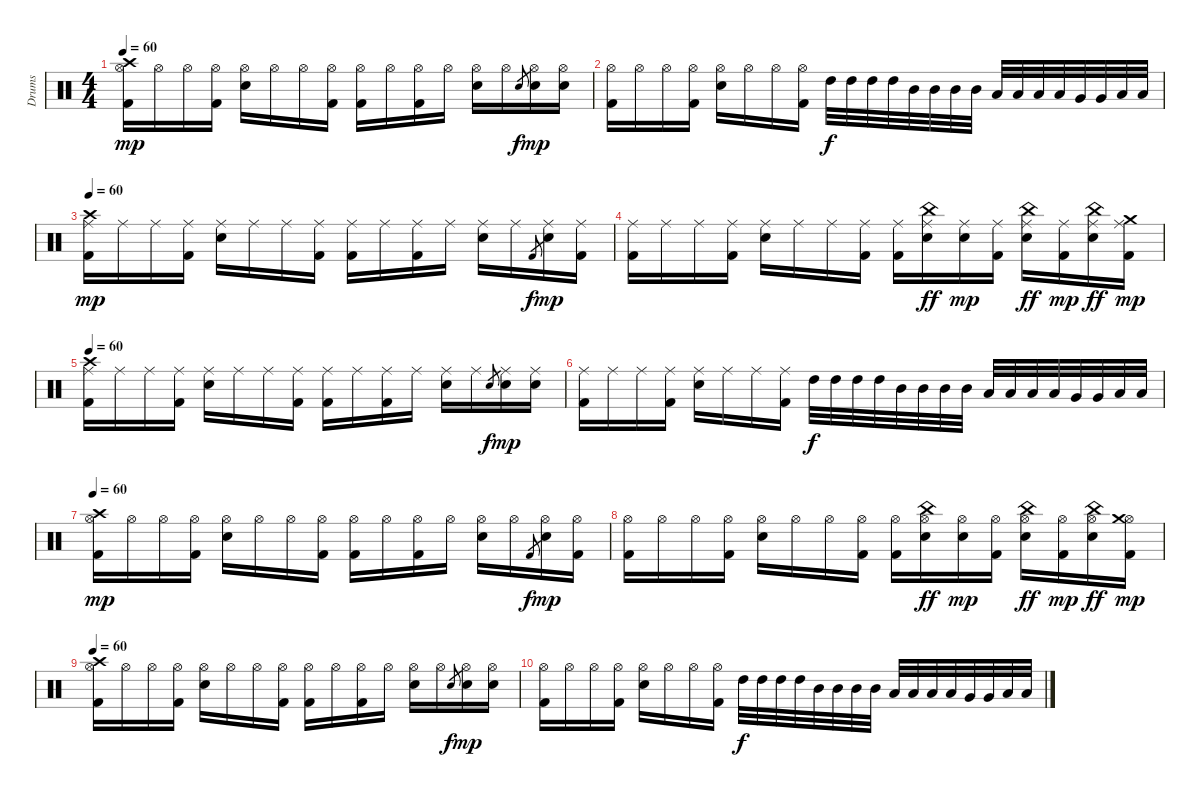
\track ("Drums" "Drums") {instrument percussion}
\staff {score}
\articulation defaults
\ts (4 4)
\tempo 60
\clef neutral
\ks c
("Crash high (hit)" "Hi-Hat (open)" "Kick (hit) 2").16{dy mp} "Hi-Hat (open)".16 "Hi-Hat (open)".16 ("Hi-Hat (open)" "Kick (hit) 2").16 ("Hi-Hat (open)" "Snare (hit) 2").16 "Hi-Hat (open)".16 "Hi-Hat (open)".16 ("Hi-Hat (open)" "Kick (hit) 2").16 ("Hi-Hat (open)" "Kick (hit) 2").16 "Hi-Hat (open)".16 ("Hi-Hat (open)" "Kick (hit) 2").16 "Hi-Hat (open)".16 ("Hi-Hat (open)" "Snare (hit) 2").16 "Hi-Hat (open)".16 "Snare (hit) 2".8{gr dy f} ("Hi-Hat (open)" "Snare (hit) 2").16{dy mp} ("Hi-Hat (open)" "Snare (hit) 2").16 |
("Hi-Hat (open)" "Kick (hit) 2").16 "Hi-Hat (open)".16 "Hi-Hat (open)".16 ("Hi-Hat (open)" "Kick (hit) 2").16 ("Hi-Hat (open)" "Snare (hit) 2").16 "Hi-Hat (open)".16 "Hi-Hat (open)".16 ("Hi-Hat (open)" "Kick (hit) 2").16 "High Tom (hit)".32{dy f} "High Tom (hit)".32 "High Tom (hit)".32 "High Tom (hit)".32 "Mid Tom (hit)".32 "Mid Tom (hit)".32 "Mid Tom (hit)".32 "Mid Tom (hit)".32 "Low Tom (hit)".32 "Low Tom (hit)".32 "Low Tom (hit)".32 "Low Tom (hit)".32 "Very Low Tom (hit)".32 "Very Low Tom (hit)".32 "Low Floor Tom (hit)".32 "Low Floor Tom (hit)".32 |
\tempo 60
("Crash high (hit)" "Ride (middle)" "Kick (hit) 2").16{dy mp} "Ride (middle)".16 "Ride (middle)".16 ("Ride (middle)" "Kick (hit) 2").16 ("Ride (middle)" "Snare (hit) 2").16 "Ride (middle)".16 "Ride (middle)".16 ("Ride (middle)" "Kick (hit) 2").16 ("Ride (middle)" "Kick (hit) 2").16 "Ride (middle)".16 ("Ride (middle)" "Kick (hit) 2").16 "Ride (middle)".16 ("Ride (middle)" "Snare (hit) 2").16 "Ride (middle)".16 "Kick (hit) 2".8{gr dy f} ("Ride (middle)" "Snare (hit) 2").16{dy mp} ("Ride (middle)" "Kick (hit) 2").16 |
("Ride (middle)" "Kick (hit) 2").16 "Ride (middle)".16 "Ride (middle)".16 ("Ride (middle)" "Kick (hit) 2").16 ("Ride (middle)" "Snare (hit) 2").16 "Ride (middle)".16 "Ride (middle)".16 ("Ride (middle)" "Kick (hit) 2").16 ("Ride (middle)" "Kick (hit) 2").16 ("Ride (middle)" "China (hit)" "Snare (hit) 2").16{dy ff} ("Ride (middle)" "Snare (hit) 2").16{dy mp} ("Ride (middle)" "Kick (hit) 2").16 ("Ride (middle)" "China (hit)" "Snare (hit) 2").16{dy ff} ("Ride (middle)" "Kick (hit) 2").16{dy mp} ("Ride (middle)" "China (hit)" "Snare (hit) 2").16{dy ff} ("Ride (middle)" "Crash medium (hit)" "Kick (hit) 2").16{dy mp} |
\tempo 60
("Crash high (hit)" "Ride (middle)" "Kick (hit) 2").16 "Ride (middle)".16 "Ride (middle)".16 ("Ride (middle)" "Kick (hit) 2").16 ("Ride (middle)" "Snare (hit) 2").16 "Ride (middle)".16 "Ride (middle)".16 ("Ride (middle)" "Kick (hit) 2").16 ("Ride (middle)" "Kick (hit) 2").16 "Ride (middle)".16 ("Ride (middle)" "Kick (hit) 2").16 "Ride (middle)".16 ("Ride (middle)" "Snare (hit) 2").16 "Ride (middle)".16 "Snare (hit) 2".8{gr dy f} ("Ride (middle)" "Snare (hit) 2").16{dy mp} ("Ride (middle)" "Snare (hit) 2").16 |
("Ride (middle)" "Kick (hit) 2").16 "Ride (middle)".16 "Ride (middle)".16 ("Ride (middle)" "Kick (hit) 2").16 ("Ride (middle)" "Snare (hit) 2").16 "Ride (middle)".16 "Ride (middle)".16 ("Ride (middle)" "Kick (hit) 2").16 "High Tom (hit)".32{dy f} "High Tom (hit)".32 "High Tom (hit)".32 "High Tom (hit)".32 "Mid Tom (hit)".32 "Mid Tom (hit)".32 "Mid Tom (hit)".32 "Mid Tom (hit)".32 "Low Tom (hit)".32 "Low Tom (hit)".32 "Low Tom (hit)".32 "Low Tom (hit)".32 "Very Low Tom (hit)".32 "Very Low Tom (hit)".32 "Low Floor Tom (hit)".32 "Low Floor Tom (hit)".32 |
\tempo 60
("Crash high (hit)" "Hi-Hat (open)" "Kick (hit) 2").16{dy mp} "Hi-Hat (open)".16 "Hi-Hat (open)".16 ("Hi-Hat (open)" "Kick (hit) 2").16 ("Hi-Hat (open)" "Snare (hit) 2").16 "Hi-Hat (open)".16 "Hi-Hat (open)".16 ("Hi-Hat (open)" "Kick (hit) 2").16 ("Hi-Hat (open)" "Kick (hit) 2").16 "Hi-Hat (open)".16 ("Hi-Hat (open)" "Kick (hit) 2").16{volume 2} "Hi-Hat (open)".16 ("Hi-Hat (open)" "Snare (hit) 2").16 "Hi-Hat (open)".16 "Kick (hit) 2".8{gr dy f} ("Hi-Hat (open)" "Snare (hit) 2").16{dy mp} ("Hi-Hat (open)" "Kick (hit) 2").16 |
("Hi-Hat (open)" "Kick (hit) 2").16 "Hi-Hat (open)".16 "Hi-Hat (open)".16 ("Hi-Hat (open)" "Kick (hit) 2").16 ("Hi-Hat (open)" "Snare (hit) 2").16 "Hi-Hat (open)".16 "Hi-Hat (open)".16 ("Hi-Hat (open)" "Kick (hit) 2").16 ("Hi-Hat (open)" "Kick (hit) 2").16 ("Hi-Hat (open)" "China (hit)" "Snare (hit) 2").16{dy ff} ("Hi-Hat (open)" "Snare (hit) 2").16{dy mp} ("Hi-Hat (open)" "Kick (hit) 2").16 ("Hi-Hat (open)" "China (hit)" "Snare (hit) 2").16{dy ff} ("Hi-Hat (open)" "Kick (hit) 2").16{dy mp} ("Hi-Hat (open)" "China (hit)" "Snare (hit) 2").16{dy ff} ("Hi-Hat (open)" "Crash medium (hit)" "Kick (hit) 2").16{dy mp} |
\tempo 60
("Crash high (hit)" "Hi-Hat (open)" "Kick (hit) 2").16 "Hi-Hat (open)".16 "Hi-Hat (open)".16 ("Hi-Hat (open)" "Kick (hit) 2").16 ("Hi-Hat (open)" "Snare (hit) 2").16 "Hi-Hat (open)".16 "Hi-Hat (open)".16 ("Hi-Hat (open)" "Kick (hit) 2").16 ("Hi-Hat (open)" "Kick (hit) 2").16 "Hi-Hat (open)".16 ("Hi-Hat (open)" "Kick (hit) 2").16 "Hi-Hat (open)".16 ("Hi-Hat (open)" "Snare (hit) 2").16{volume 0} "Hi-Hat (open)".16 "Snare (hit) 2".8{gr dy f} ("Hi-Hat (open)" "Snare (hit) 2").16{dy mp} ("Hi-Hat (open)" "Snare (hit) 2").16 |
("Hi-Hat (open)" "Kick (hit) 2").16 "Hi-Hat (open)".16 "Hi-Hat (open)".16 ("Hi-Hat (open)" "Kick (hit) 2").16 ("Hi-Hat (open)" "Snare (hit) 2").16 "Hi-Hat (open)".16 "Hi-Hat (open)".16 ("Hi-Hat (open)" "Kick (hit) 2").16 "High Tom (hit)".32{dy f} "High Tom (hit)".32 "High Tom (hit)".32 "High Tom (hit)".32 "Mid Tom (hit)".32 "Mid Tom (hit)".32 "Mid Tom (hit)".32 "Mid Tom (hit)".32 "Low Tom (hit)".32 "Low Tom (hit)".32 "Low Tom (hit)".32 "Low Tom (hit)".32 "Very Low Tom (hit)".32 "Very Low Tom (hit)".32 "Low Floor Tom (hit)".32 "Low Floor Tom (hit)".32
